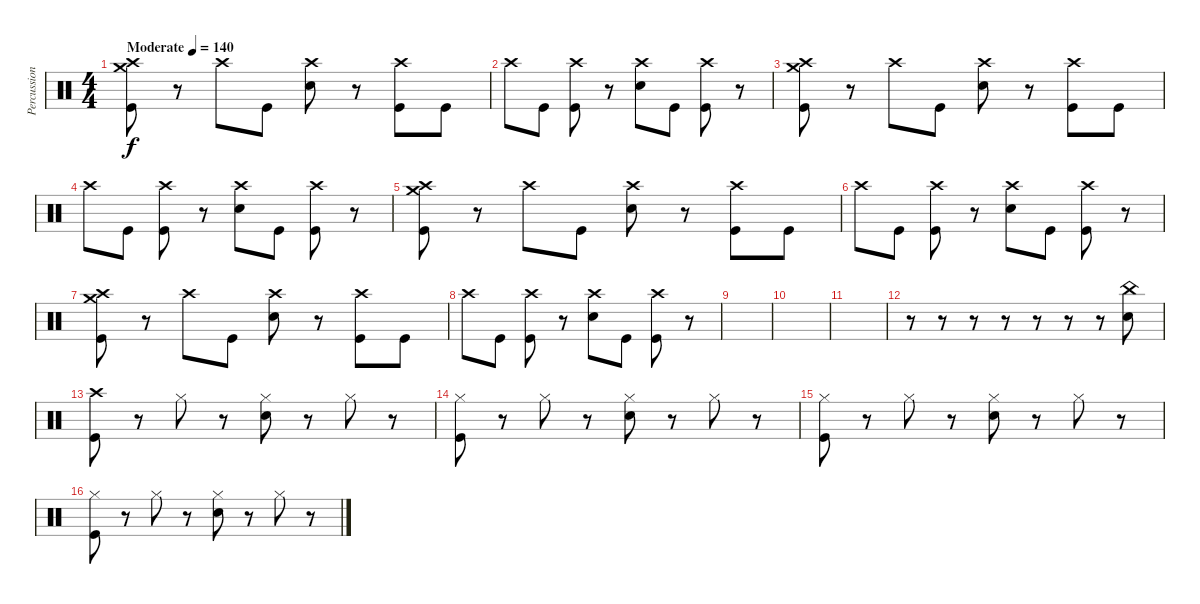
\track ("Percussion" "Percussion") {instrument percussion}
\staff {score}
\articulation defaults
\ts (4 4)
\tempo (140 "Moderate")
\clef neutral
\ks c
("Crash medium (hit)" "Crash high (hit)" "Kick (hit)").8{dy f} r.8 "Crash high (hit)".8 "Kick (hit)".8 ("Crash high (hit)" "Snare (hit) 2").8 r.8 ("Crash high (hit)" "Kick (hit)").8 "Kick (hit)".8 |
"Crash high (hit)".8 "Kick (hit)".8 ("Crash high (hit)" "Kick (hit)").8 r.8 ("Crash high (hit)" "Snare (hit) 2").8 "Kick (hit)".8 ("Crash high (hit)" "Kick (hit)").8 r.8 |
("Crash medium (hit)" "Crash high (hit)" "Kick (hit)").8 r.8 "Crash high (hit)".8 "Kick (hit)".8 ("Crash high (hit)" "Snare (hit) 2").8 r.8 ("Crash high (hit)" "Kick (hit)").8 "Kick (hit)".8 |
"Crash high (hit)".8 "Kick (hit)".8 ("Crash high (hit)" "Kick (hit)").8 r.8 ("Crash high (hit)" "Snare (hit) 2").8 "Kick (hit)".8 ("Crash high (hit)" "Kick (hit)").8 r.8 |
("Crash medium (hit)" "Crash high (hit)" "Kick (hit)").8 r.8 "Crash high (hit)".8 "Kick (hit)".8 ("Crash high (hit)" "Snare (hit) 2").8 r.8 ("Crash high (hit)" "Kick (hit)").8 "Kick (hit)".8 |
"Crash high (hit)".8 "Kick (hit)".8 ("Crash high (hit)" "Kick (hit)").8 r.8 ("Crash high (hit)" "Snare (hit) 2").8 "Kick (hit)".8 ("Crash high (hit)" "Kick (hit)").8 r.8 |
("Crash medium (hit)" "Crash high (hit)" "Kick (hit)").8 r.8 "Crash high (hit)".8 "Kick (hit)".8 ("Crash high (hit)" "Snare (hit) 2").8 r.8 ("Crash high (hit)" "Kick (hit)").8 "Kick (hit)".8 |
"Crash high (hit)".8 "Kick (hit)".8 ("Crash high (hit)" "Kick (hit)").8 r.8 ("Crash high (hit)" "Snare (hit) 2").8 "Kick (hit)".8 ("Crash high (hit)" "Kick (hit)").8 r.8 |
|
|
|
r.8 r.8 r.8 r.8 r.8 r.8 r.8 ("China (hit)" "Snare (hit) 2").8 |
("Crash high (hit)" "Kick (hit)").8 r.8 "Hi-Hat (closed)".8 r.8 ("Hi-Hat (closed)" "Snare (hit) 2").8 r.8 "Hi-Hat (closed)".8 r.8 |
("Hi-Hat (closed)" "Kick (hit)").8 r.8 "Hi-Hat (closed)".8 r.8 ("Hi-Hat (closed)" "Snare (hit) 2").8 r.8 "Hi-Hat (closed)".8 r.8 |
("Hi-Hat (closed)" "Kick (hit)").8 r.8 "Hi-Hat (closed)".8 r.8 ("Hi-Hat (closed)" "Snare (hit) 2").8 r.8 "Hi-Hat (closed)".8 r.8 |
("Hi-Hat (closed)" "Kick (hit)").8 r.8 "Hi-Hat (closed)".8 r.8 ("Hi-Hat (closed)" "Snare (hit) 2").8 r.8 "Hi-Hat (closed)".8 r.8
